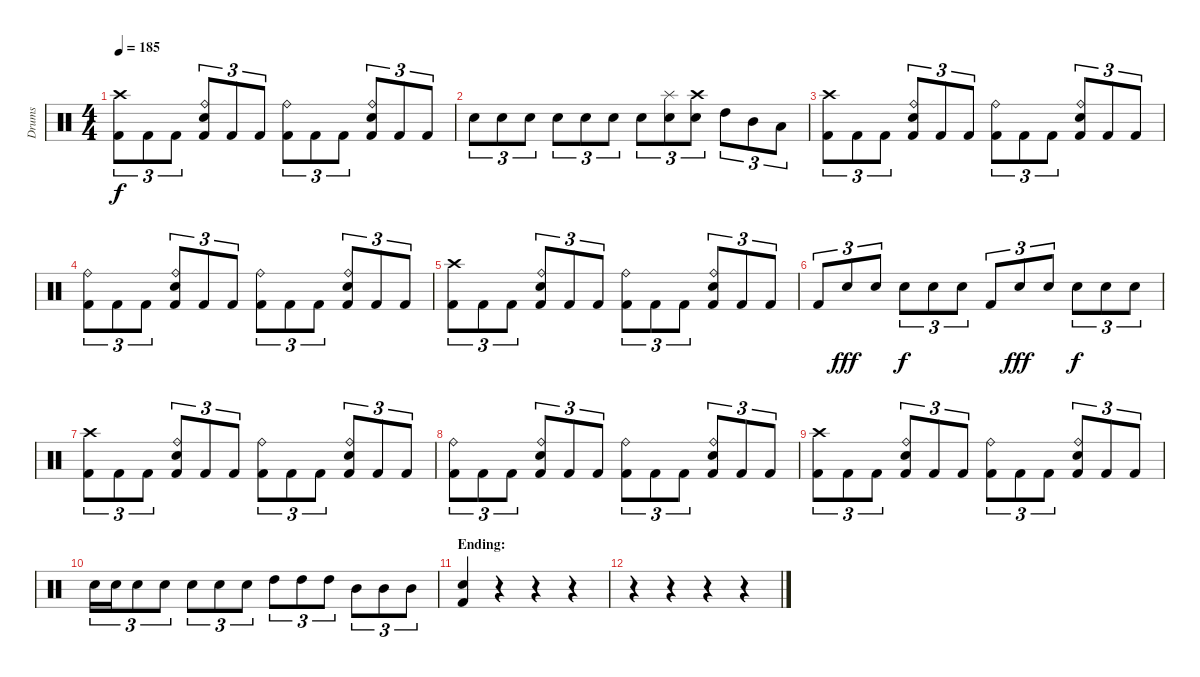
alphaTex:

\track ("Drums" "Drums") {instrument percussion}
\staff {score}
\articulation defaults
\ts (4 4)
\tempo 185
\clef neutral
\ks c
("Crash high (hit)" "Kick (hit) 2").8{tu (3 2) dy f} "Kick (hit) 2".8{tu (3 2)} "Kick (hit) 2".8{tu (3 2)} ("Ride (bell)" "Electric Snare (hit)" "Kick (hit) 2").8{tu (3 2)} "Kick (hit) 2".8{tu (3 2)} "Kick (hit) 2".8{tu (3 2)} ("Ride (bell)" "Kick (hit) 2").8{tu (3 2)} "Kick (hit) 2".8{tu (3 2)} "Kick (hit) 2".8{tu (3 2)} ("Ride (bell)" "Electric Snare (hit)" "Kick (hit) 2").8{tu (3 2)} "Kick (hit) 2".8{tu (3 2)} "Kick (hit) 2".8{tu (3 2)} |
"Electric Snare (hit)".8{tu (3 2)} "Electric Snare (hit)".8{tu (3 2)} "Electric Snare (hit)".8{tu (3 2)} "Electric Snare (hit)".8{tu (3 2)} "Electric Snare (hit)".8{tu (3 2)} "Electric Snare (hit)".8{tu (3 2)} "Electric Snare (hit)".8{tu (3 2)} ("Splash (hit)" "Electric Snare (hit)").8{tu (3 2)} ("Crash high (hit)" "Electric Snare (hit)").8{tu (3 2)} "High Tom (hit)".8{tu (3 2)} "Mid Tom (hit)".8{tu (3 2)} "Low Tom (hit)".8{tu (3 2)} |
("Crash high (hit)" "Kick (hit) 2").8{tu (3 2)} "Kick (hit) 2".8{tu (3 2)} "Kick (hit) 2".8{tu (3 2)} ("Ride (bell)" "Electric Snare (hit)" "Kick (hit) 2").8{tu (3 2)} "Kick (hit) 2".8{tu (3 2)} "Kick (hit) 2".8{tu (3 2)} ("Ride (bell)" "Kick (hit) 2").8{tu (3 2)} "Kick (hit) 2".8{tu (3 2)} "Kick (hit) 2".8{tu (3 2)} ("Ride (bell)" "Electric Snare (hit)" "Kick (hit) 2").8{tu (3 2)} "Kick (hit) 2".8{tu (3 2)} "Kick (hit) 2".8{tu (3 2)} |
("Ride (bell)" "Kick (hit) 2").8{tu (3 2)} "Kick (hit) 2".8{tu (3 2)} "Kick (hit) 2".8{tu (3 2)} ("Ride (bell)" "Electric Snare (hit)" "Kick (hit) 2").8{tu (3 2)} "Kick (hit) 2".8{tu (3 2)} "Kick (hit) 2".8{tu (3 2)} ("Ride (bell)" "Kick (hit) 2").8{tu (3 2)} "Kick (hit) 2".8{tu (3 2)} "Kick (hit) 2".8{tu (3 2)} ("Ride (bell)" "Electric Snare (hit)" "Kick (hit) 2").8{tu (3 2)} "Kick (hit) 2".8{tu (3 2)} "Kick (hit) 2".8{tu (3 2)} |
("Crash high (hit)" "Kick (hit) 2").8{tu (3 2)} "Kick (hit) 2".8{tu (3 2)} "Kick (hit) 2".8{tu (3 2)} ("Ride (bell)" "Electric Snare (hit)" "Kick (hit) 2").8{tu (3 2)} "Kick (hit) 2".8{tu (3 2)} "Kick (hit) 2".8{tu (3 2)} ("Ride (bell)" "Kick (hit) 2").8{tu (3 2)} "Kick (hit) 2".8{tu (3 2)} "Kick (hit) 2".8{tu (3 2)} ("Ride (bell)" "Electric Snare (hit)" "Kick (hit) 2").8{tu (3 2)} "Kick (hit) 2".8{tu (3 2)} "Kick (hit) 2".8{tu (3 2)} |
"Kick (hit) 2".8{tu (3 2)} "Electric Snare (hit)".8{tu (3 2) dy fff} "Electric Snare (hit)".8{tu (3 2)} "Electric Snare (hit)".8{tu (3 2) dy f} "Electric Snare (hit)".8{tu (3 2)} "Electric Snare (hit)".8{tu (3 2)} "Kick (hit) 2".8{tu (3 2)} "Electric Snare (hit)".8{tu (3 2) dy fff} "Electric Snare (hit)".8{tu (3 2)} "Electric Snare (hit)".8{tu (3 2) dy f} "Electric Snare (hit)".8{tu (3 2)} "Electric Snare (hit)".8{tu (3 2)} |
("Crash high (hit)" "Kick (hit) 2").8{tu (3 2)} "Kick (hit) 2".8{tu (3 2)} "Kick (hit) 2".8{tu (3 2)} ("Ride (bell)" "Electric Snare (hit)" "Kick (hit) 2").8{tu (3 2)} "Kick (hit) 2".8{tu (3 2)} "Kick (hit) 2".8{tu (3 2)} ("Ride (bell)" "Kick (hit) 2").8{tu (3 2)} "Kick (hit) 2".8{tu (3 2)} "Kick (hit) 2".8{tu (3 2)} ("Ride (bell)" "Electric Snare (hit)" "Kick (hit) 2").8{tu (3 2)} "Kick (hit) 2".8{tu (3 2)} "Kick (hit) 2".8{tu (3 2)} |
("Ride (bell)" "Kick (hit) 2").8{tu (3 2)} "Kick (hit) 2".8{tu (3 2)} "Kick (hit) 2".8{tu (3 2)} ("Ride (bell)" "Electric Snare (hit)" "Kick (hit) 2").8{tu (3 2)} "Kick (hit) 2".8{tu (3 2)} "Kick (hit) 2".8{tu (3 2)} ("Ride (bell)" "Kick (hit) 2").8{tu (3 2)} "Kick (hit) 2".8{tu (3 2)} "Kick (hit) 2".8{tu (3 2)} ("Ride (bell)" "Electric Snare (hit)" "Kick (hit) 2").8{tu (3 2)} "Kick (hit) 2".8{tu (3 2)} "Kick (hit) 2".8{tu (3 2)} |
("Crash high (hit)" "Kick (hit) 2").8{tu (3 2)} "Kick (hit) 2".8{tu (3 2)} "Kick (hit) 2".8{tu (3 2)} ("Ride (bell)" "Electric Snare (hit)" "Kick (hit) 2").8{tu (3 2)} "Kick (hit) 2".8{tu (3 2)} "Kick (hit) 2".8{tu (3 2)} ("Ride (bell)" "Kick (hit) 2").8{tu (3 2)} "Kick (hit) 2".8{tu (3 2)} "Kick (hit) 2".8{tu (3 2)} ("Ride (bell)" "Electric Snare (hit)" "Kick (hit) 2").8{tu (3 2)} "Kick (hit) 2".8{tu (3 2)} "Kick (hit) 2".8{tu (3 2)} |
"Electric Snare (hit)".16{tu (3 2)} "Electric Snare (hit)".16{tu (3 2)} "Electric Snare (hit)".8{tu (3 2)} "Electric Snare (hit)".8{tu (3 2)} "Electric Snare (hit)".8{tu (3 2)} "Electric Snare (hit)".8{tu (3 2)} "Electric Snare (hit)".8{tu (3 2)} "High Tom (hit)".8{tu (3 2)} "High Tom (hit)".8{tu (3 2)} "High Tom (hit)".8{tu (3 2)} "Mid Tom (hit)".8{tu (3 2)} "Mid Tom (hit)".8{tu (3 2)} "Mid Tom (hit)".8{tu (3 2)} |
\section ("" "Ending:")
("Electric Snare (hit)" "Kick (hit) 2").4 r.4 r.4 r.4 |
r.4 r.4 r.4 r.4
